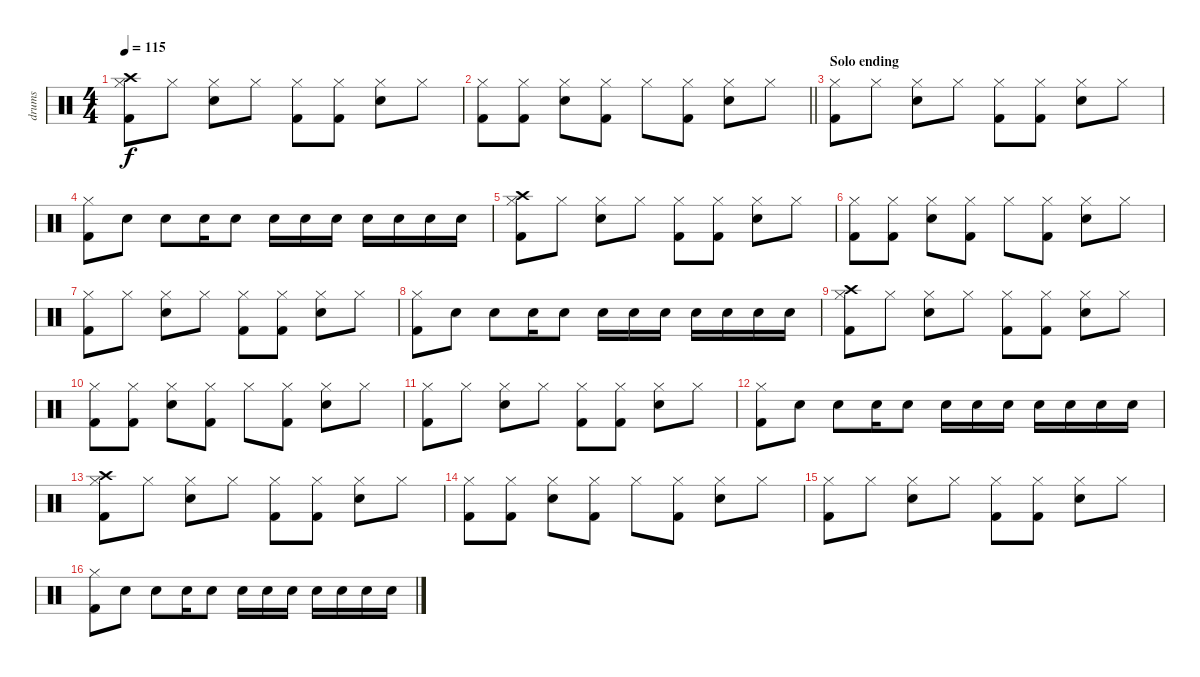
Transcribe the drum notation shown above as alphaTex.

\track ("drums" "drums") {instrument percussion}
\staff {score}
\articulation defaults
\ts (4 4)
\tempo 115
\clef neutral
\ks c
("Hi-Hat (closed)" "Crash high (hit)" "Kick (hit) 2").8{dy f} "Hi-Hat (closed)".8 ("Hi-Hat (closed)" "Electric Snare (hit)").8 "Hi-Hat (closed)".8 ("Hi-Hat (closed)" "Kick (hit) 2").8 ("Hi-Hat (closed)" "Kick (hit) 2").8 ("Hi-Hat (closed)" "Electric Snare (hit)").8 "Hi-Hat (closed)".8 |
\barLineRight lightlight
("Hi-Hat (closed)" "Kick (hit) 2").8 ("Hi-Hat (closed)" "Kick (hit) 2").8 ("Hi-Hat (closed)" "Electric Snare (hit)").8 ("Hi-Hat (closed)" "Kick (hit) 2").8 "Hi-Hat (closed)".8 ("Hi-Hat (closed)" "Kick (hit) 2").8 ("Hi-Hat (closed)" "Electric Snare (hit)").8 "Hi-Hat (closed)".8 |
\section ("" "Solo ending")
("Hi-Hat (closed)" "Kick (hit) 2").8 "Hi-Hat (closed)".8 ("Hi-Hat (closed)" "Electric Snare (hit)").8 "Hi-Hat (closed)".8 ("Hi-Hat (closed)" "Kick (hit) 2").8 ("Hi-Hat (closed)" "Kick (hit) 2").8 ("Hi-Hat (closed)" "Electric Snare (hit)").8 "Hi-Hat (closed)".8 |
("Hi-Hat (closed)" "Kick (hit) 2").8 "Electric Snare (hit)".8 "Electric Snare (hit)".8 "Electric Snare (hit)".16 "Electric Snare (hit)".8 "Electric Snare (hit)".16 "Electric Snare (hit)".16 "Electric Snare (hit)".16 "Electric Snare (hit)".16 "Electric Snare (hit)".16 "Electric Snare (hit)".16 "Electric Snare (hit)".16 |
("Hi-Hat (closed)" "Crash high (hit)" "Kick (hit) 2").8 "Hi-Hat (closed)".8 ("Hi-Hat (closed)" "Electric Snare (hit)").8 "Hi-Hat (closed)".8 ("Hi-Hat (closed)" "Kick (hit) 2").8 ("Hi-Hat (closed)" "Kick (hit) 2").8 ("Hi-Hat (closed)" "Electric Snare (hit)").8 "Hi-Hat (closed)".8 |
("Hi-Hat (closed)" "Kick (hit) 2").8 ("Hi-Hat (closed)" "Kick (hit) 2").8 ("Hi-Hat (closed)" "Electric Snare (hit)").8 ("Hi-Hat (closed)" "Kick (hit) 2").8 "Hi-Hat (closed)".8 ("Hi-Hat (closed)" "Kick (hit) 2").8 ("Hi-Hat (closed)" "Electric Snare (hit)").8 "Hi-Hat (closed)".8 |
("Hi-Hat (closed)" "Kick (hit) 2").8 "Hi-Hat (closed)".8 ("Hi-Hat (closed)" "Electric Snare (hit)").8 "Hi-Hat (closed)".8 ("Hi-Hat (closed)" "Kick (hit) 2").8 ("Hi-Hat (closed)" "Kick (hit) 2").8 ("Hi-Hat (closed)" "Electric Snare (hit)").8 "Hi-Hat (closed)".8 |
("Hi-Hat (closed)" "Kick (hit) 2").8 "Electric Snare (hit)".8 "Electric Snare (hit)".8 "Electric Snare (hit)".16 "Electric Snare (hit)".8 "Electric Snare (hit)".16 "Electric Snare (hit)".16 "Electric Snare (hit)".16 "Electric Snare (hit)".16 "Electric Snare (hit)".16 "Electric Snare (hit)".16 "Electric Snare (hit)".16 |
("Hi-Hat (closed)" "Crash high (hit)" "Kick (hit) 2").8 "Hi-Hat (closed)".8 ("Hi-Hat (closed)" "Electric Snare (hit)").8 "Hi-Hat (closed)".8 ("Hi-Hat (closed)" "Kick (hit) 2").8 ("Hi-Hat (closed)" "Kick (hit) 2").8 ("Hi-Hat (closed)" "Electric Snare (hit)").8 "Hi-Hat (closed)".8 |
("Hi-Hat (closed)" "Kick (hit) 2").8 ("Hi-Hat (closed)" "Kick (hit) 2").8 ("Hi-Hat (closed)" "Electric Snare (hit)").8 ("Hi-Hat (closed)" "Kick (hit) 2").8 "Hi-Hat (closed)".8 ("Hi-Hat (closed)" "Kick (hit) 2").8 ("Hi-Hat (closed)" "Electric Snare (hit)").8 "Hi-Hat (closed)".8 |
("Hi-Hat (closed)" "Kick (hit) 2").8 "Hi-Hat (closed)".8 ("Hi-Hat (closed)" "Electric Snare (hit)").8 "Hi-Hat (closed)".8 ("Hi-Hat (closed)" "Kick (hit) 2").8 ("Hi-Hat (closed)" "Kick (hit) 2").8 ("Hi-Hat (closed)" "Electric Snare (hit)").8 "Hi-Hat (closed)".8 |
("Hi-Hat (closed)" "Kick (hit) 2").8 "Electric Snare (hit)".8 "Electric Snare (hit)".8 "Electric Snare (hit)".16 "Electric Snare (hit)".8 "Electric Snare (hit)".16 "Electric Snare (hit)".16 "Electric Snare (hit)".16 "Electric Snare (hit)".16 "Electric Snare (hit)".16 "Electric Snare (hit)".16 "Electric Snare (hit)".16 |
("Hi-Hat (closed)" "Crash high (hit)" "Kick (hit) 2").8 "Hi-Hat (closed)".8 ("Hi-Hat (closed)" "Electric Snare (hit)").8 "Hi-Hat (closed)".8 ("Hi-Hat (closed)" "Kick (hit) 2").8 ("Hi-Hat (closed)" "Kick (hit) 2").8 ("Hi-Hat (closed)" "Electric Snare (hit)").8 "Hi-Hat (closed)".8 |
("Hi-Hat (closed)" "Kick (hit) 2").8 ("Hi-Hat (closed)" "Kick (hit) 2").8 ("Hi-Hat (closed)" "Electric Snare (hit)").8 ("Hi-Hat (closed)" "Kick (hit) 2").8 "Hi-Hat (closed)".8 ("Hi-Hat (closed)" "Kick (hit) 2").8 ("Hi-Hat (closed)" "Electric Snare (hit)").8 "Hi-Hat (closed)".8 |
("Hi-Hat (closed)" "Kick (hit) 2").8 "Hi-Hat (closed)".8 ("Hi-Hat (closed)" "Electric Snare (hit)").8 "Hi-Hat (closed)".8 ("Hi-Hat (closed)" "Kick (hit) 2").8 ("Hi-Hat (closed)" "Kick (hit) 2").8 ("Hi-Hat (closed)" "Electric Snare (hit)").8 "Hi-Hat (closed)".8 |
("Hi-Hat (closed)" "Kick (hit) 2").8 "Electric Snare (hit)".8 "Electric Snare (hit)".8 "Electric Snare (hit)".16 "Electric Snare (hit)".8 "Electric Snare (hit)".16 "Electric Snare (hit)".16 "Electric Snare (hit)".16 "Electric Snare (hit)".16 "Electric Snare (hit)".16 "Electric Snare (hit)".16 "Electric Snare (hit)".16
